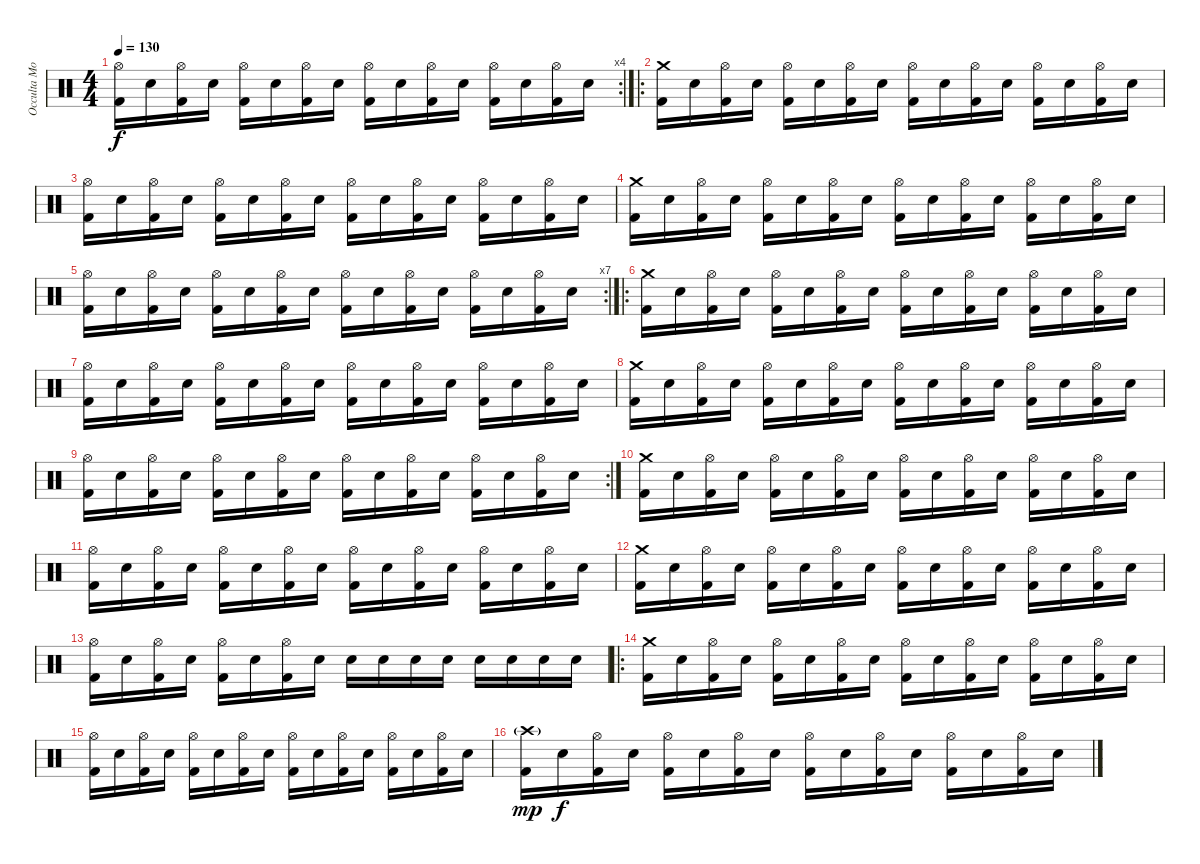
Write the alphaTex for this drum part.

\track ("Occulta Mors" "Occulta Mo") {instrument percussion}
\staff {score}
\articulation defaults
\rc 4
\ts (4 4)
\tempo 130
\clef neutral
\ks c
("Hi-Hat (open)" "Kick (hit) 2").16{dy f} "Snare (hit) 2".16 ("Hi-Hat (open)" "Kick (hit) 2").16 "Snare (hit) 2".16 ("Hi-Hat (open)" "Kick (hit) 2").16 "Snare (hit) 2".16 ("Hi-Hat (open)" "Kick (hit) 2").16 "Snare (hit) 2".16 ("Hi-Hat (open)" "Kick (hit) 2").16 "Snare (hit) 2".16 ("Hi-Hat (open)" "Kick (hit) 2").16 "Snare (hit) 2".16 ("Hi-Hat (open)" "Kick (hit) 2").16 "Snare (hit) 2".16 ("Hi-Hat (open)" "Kick (hit) 2").16 "Snare (hit) 2".16 |
\ro
("Crash medium (hit)" "Kick (hit) 2").16 "Snare (hit) 2".16 ("Hi-Hat (open)" "Kick (hit) 2").16 "Snare (hit) 2".16 ("Hi-Hat (open)" "Kick (hit) 2").16 "Snare (hit) 2".16 ("Hi-Hat (open)" "Kick (hit) 2").16 "Snare (hit) 2".16 ("Hi-Hat (open)" "Kick (hit) 2").16 "Snare (hit) 2".16 ("Hi-Hat (open)" "Kick (hit) 2").16 "Snare (hit) 2".16 ("Hi-Hat (open)" "Kick (hit) 2").16 "Snare (hit) 2".16 ("Hi-Hat (open)" "Kick (hit) 2").16 "Snare (hit) 2".16 |
("Hi-Hat (open)" "Kick (hit) 2").16 "Snare (hit) 2".16 ("Hi-Hat (open)" "Kick (hit) 2").16 "Snare (hit) 2".16 ("Hi-Hat (open)" "Kick (hit) 2").16 "Snare (hit) 2".16 ("Hi-Hat (open)" "Kick (hit) 2").16 "Snare (hit) 2".16 ("Hi-Hat (open)" "Kick (hit) 2").16 "Snare (hit) 2".16 ("Hi-Hat (open)" "Kick (hit) 2").16 "Snare (hit) 2".16 ("Hi-Hat (open)" "Kick (hit) 2").16 "Snare (hit) 2".16 ("Hi-Hat (open)" "Kick (hit) 2").16 "Snare (hit) 2".16 |
("Crash medium (hit)" "Kick (hit) 2").16 "Snare (hit) 2".16 ("Hi-Hat (open)" "Kick (hit) 2").16 "Snare (hit) 2".16 ("Hi-Hat (open)" "Kick (hit) 2").16 "Snare (hit) 2".16 ("Hi-Hat (open)" "Kick (hit) 2").16 "Snare (hit) 2".16 ("Hi-Hat (open)" "Kick (hit) 2").16 "Snare (hit) 2".16 ("Hi-Hat (open)" "Kick (hit) 2").16 "Snare (hit) 2".16 ("Hi-Hat (open)" "Kick (hit) 2").16 "Snare (hit) 2".16 ("Hi-Hat (open)" "Kick (hit) 2").16 "Snare (hit) 2".16 |
\rc 7
("Hi-Hat (open)" "Kick (hit) 2").16 "Snare (hit) 2".16 ("Hi-Hat (open)" "Kick (hit) 2").16 "Snare (hit) 2".16 ("Hi-Hat (open)" "Kick (hit) 2").16 "Snare (hit) 2".16 ("Hi-Hat (open)" "Kick (hit) 2").16 "Snare (hit) 2".16 ("Hi-Hat (open)" "Kick (hit) 2").16 "Snare (hit) 2".16 ("Hi-Hat (open)" "Kick (hit) 2").16 "Snare (hit) 2".16 ("Hi-Hat (open)" "Kick (hit) 2").16 "Snare (hit) 2".16 ("Hi-Hat (open)" "Kick (hit) 2").16 "Snare (hit) 2".16 |
\ro
("Crash medium (hit)" "Kick (hit) 2").16 "Snare (hit) 2".16 ("Hi-Hat (open)" "Kick (hit) 2").16 "Snare (hit) 2".16 ("Hi-Hat (open)" "Kick (hit) 2").16 "Snare (hit) 2".16 ("Hi-Hat (open)" "Kick (hit) 2").16 "Snare (hit) 2".16 ("Hi-Hat (open)" "Kick (hit) 2").16 "Snare (hit) 2".16 ("Hi-Hat (open)" "Kick (hit) 2").16 "Snare (hit) 2".16 ("Hi-Hat (open)" "Kick (hit) 2").16 "Snare (hit) 2".16 ("Hi-Hat (open)" "Kick (hit) 2").16 "Snare (hit) 2".16 |
("Hi-Hat (open)" "Kick (hit) 2").16 "Snare (hit) 2".16 ("Hi-Hat (open)" "Kick (hit) 2").16 "Snare (hit) 2".16 ("Hi-Hat (open)" "Kick (hit) 2").16 "Snare (hit) 2".16 ("Hi-Hat (open)" "Kick (hit) 2").16 "Snare (hit) 2".16 ("Hi-Hat (open)" "Kick (hit) 2").16 "Snare (hit) 2".16 ("Hi-Hat (open)" "Kick (hit) 2").16 "Snare (hit) 2".16 ("Hi-Hat (open)" "Kick (hit) 2").16 "Snare (hit) 2".16 ("Hi-Hat (open)" "Kick (hit) 2").16 "Snare (hit) 2".16 |
("Crash medium (hit)" "Kick (hit) 2").16 "Snare (hit) 2".16 ("Hi-Hat (open)" "Kick (hit) 2").16 "Snare (hit) 2".16 ("Hi-Hat (open)" "Kick (hit) 2").16 "Snare (hit) 2".16 ("Hi-Hat (open)" "Kick (hit) 2").16 "Snare (hit) 2".16 ("Hi-Hat (open)" "Kick (hit) 2").16 "Snare (hit) 2".16 ("Hi-Hat (open)" "Kick (hit) 2").16 "Snare (hit) 2".16 ("Hi-Hat (open)" "Kick (hit) 2").16 "Snare (hit) 2".16 ("Hi-Hat (open)" "Kick (hit) 2").16 "Snare (hit) 2".16 |
\rc 2
("Hi-Hat (open)" "Kick (hit) 2").16 "Snare (hit) 2".16 ("Hi-Hat (open)" "Kick (hit) 2").16 "Snare (hit) 2".16 ("Hi-Hat (open)" "Kick (hit) 2").16 "Snare (hit) 2".16 ("Hi-Hat (open)" "Kick (hit) 2").16 "Snare (hit) 2".16 ("Hi-Hat (open)" "Kick (hit) 2").16 "Snare (hit) 2".16 ("Hi-Hat (open)" "Kick (hit) 2").16 "Snare (hit) 2".16 ("Hi-Hat (open)" "Kick (hit) 2").16 "Snare (hit) 2".16 ("Hi-Hat (open)" "Kick (hit) 2").16 "Snare (hit) 2".16 |
("Crash medium (hit)" "Kick (hit) 2").16 "Snare (hit) 2".16 ("Hi-Hat (open)" "Kick (hit) 2").16 "Snare (hit) 2".16 ("Hi-Hat (open)" "Kick (hit) 2").16 "Snare (hit) 2".16 ("Hi-Hat (open)" "Kick (hit) 2").16 "Snare (hit) 2".16 ("Hi-Hat (open)" "Kick (hit) 2").16 "Snare (hit) 2".16 ("Hi-Hat (open)" "Kick (hit) 2").16 "Snare (hit) 2".16 ("Hi-Hat (open)" "Kick (hit) 2").16 "Snare (hit) 2".16 ("Hi-Hat (open)" "Kick (hit) 2").16 "Snare (hit) 2".16 |
("Hi-Hat (open)" "Kick (hit) 2").16 "Snare (hit) 2".16 ("Hi-Hat (open)" "Kick (hit) 2").16 "Snare (hit) 2".16 ("Hi-Hat (open)" "Kick (hit) 2").16 "Snare (hit) 2".16 ("Hi-Hat (open)" "Kick (hit) 2").16 "Snare (hit) 2".16 ("Hi-Hat (open)" "Kick (hit) 2").16 "Snare (hit) 2".16 ("Hi-Hat (open)" "Kick (hit) 2").16 "Snare (hit) 2".16 ("Hi-Hat (open)" "Kick (hit) 2").16 "Snare (hit) 2".16 ("Hi-Hat (open)" "Kick (hit) 2").16 "Snare (hit) 2".16 |
("Crash medium (hit)" "Kick (hit) 2").16 "Snare (hit) 2".16 ("Hi-Hat (open)" "Kick (hit) 2").16 "Snare (hit) 2".16 ("Hi-Hat (open)" "Kick (hit) 2").16 "Snare (hit) 2".16 ("Hi-Hat (open)" "Kick (hit) 2").16 "Snare (hit) 2".16 ("Hi-Hat (open)" "Kick (hit) 2").16 "Snare (hit) 2".16 ("Hi-Hat (open)" "Kick (hit) 2").16 "Snare (hit) 2".16 ("Hi-Hat (open)" "Kick (hit) 2").16 "Snare (hit) 2".16 ("Hi-Hat (open)" "Kick (hit) 2").16 "Snare (hit) 2".16 |
("Hi-Hat (open)" "Kick (hit) 2").16 "Snare (hit) 2".16 ("Hi-Hat (open)" "Kick (hit) 2").16 "Snare (hit) 2".16 ("Hi-Hat (open)" "Kick (hit) 2").16 "Snare (hit) 2".16 ("Hi-Hat (open)" "Kick (hit) 2").16 "Snare (hit) 2".16 "Snare (hit) 2".16 "Snare (hit) 2".16 "Snare (hit) 2".16 "Snare (hit) 2".16 "Snare (hit) 2".16 "Snare (hit) 2".16 "Snare (hit) 2".16 "Snare (hit) 2".16 |
\ro
("Crash medium (hit)" "Kick (hit) 2").16 "Snare (hit) 2".16 ("Hi-Hat (open)" "Kick (hit) 2").16 "Snare (hit) 2".16 ("Hi-Hat (open)" "Kick (hit) 2").16 "Snare (hit) 2".16 ("Hi-Hat (open)" "Kick (hit) 2").16 "Snare (hit) 2".16 ("Hi-Hat (open)" "Kick (hit) 2").16 "Snare (hit) 2".16 ("Hi-Hat (open)" "Kick (hit) 2").16 "Snare (hit) 2".16 ("Hi-Hat (open)" "Kick (hit) 2").16 "Snare (hit) 2".16 ("Hi-Hat (open)" "Kick (hit) 2").16 "Snare (hit) 2".16 |
("Hi-Hat (open)" "Kick (hit) 2").16 "Snare (hit) 2".16 ("Hi-Hat (open)" "Kick (hit) 2").16 "Snare (hit) 2".16 ("Hi-Hat (open)" "Kick (hit) 2").16 "Snare (hit) 2".16 ("Hi-Hat (open)" "Kick (hit) 2").16 "Snare (hit) 2".16 ("Hi-Hat (open)" "Kick (hit) 2").16 "Snare (hit) 2".16 ("Hi-Hat (open)" "Kick (hit) 2").16 "Snare (hit) 2".16 ("Hi-Hat (open)" "Kick (hit) 2").16 "Snare (hit) 2".16 ("Hi-Hat (open)" "Kick (hit) 2").16 "Snare (hit) 2".16 |
("Crash high (hit)"{g} "Kick (hit) 2").16{dy mp} "Snare (hit) 2".16{dy f} ("Hi-Hat (open)" "Kick (hit) 2").16 "Snare (hit) 2".16 ("Hi-Hat (open)" "Kick (hit) 2").16 "Snare (hit) 2".16 ("Hi-Hat (open)" "Kick (hit) 2").16 "Snare (hit) 2".16 ("Hi-Hat (open)" "Kick (hit) 2").16 "Snare (hit) 2".16 ("Hi-Hat (open)" "Kick (hit) 2").16 "Snare (hit) 2".16 ("Hi-Hat (open)" "Kick (hit) 2").16 "Snare (hit) 2".16 ("Hi-Hat (open)" "Kick (hit) 2").16 "Snare (hit) 2".16
